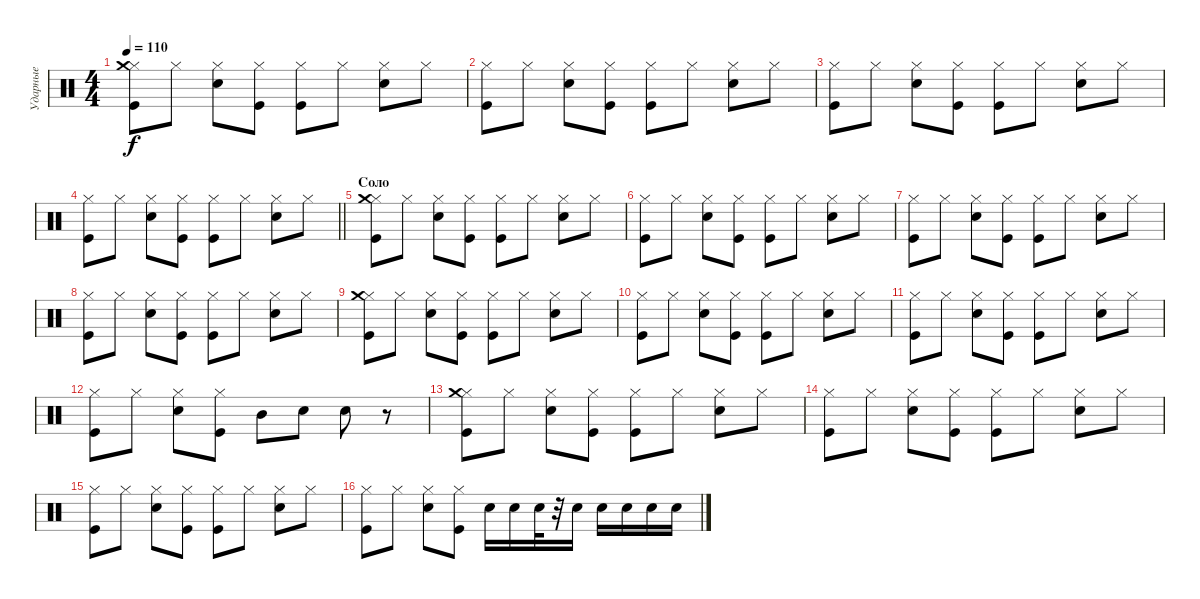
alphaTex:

\track ("Ударные" "Ударные") {instrument percussion}
\staff {score}
\articulation defaults
\ts (4 4)
\tempo 110
\clef neutral
\ks c
("Kick (hit)" "Hi-Hat (closed)" "Crash medium (hit)").8{dy f} "Hi-Hat (closed)".8 ("Snare (hit) 2" "Hi-Hat (closed)").8 ("Kick (hit)" "Hi-Hat (closed)").8 ("Hi-Hat (closed)" "Kick (hit)").8 "Hi-Hat (closed)".8 ("Snare (hit) 2" "Hi-Hat (closed)").8 "Hi-Hat (closed)".8 |
("Kick (hit)" "Hi-Hat (closed)").8 "Hi-Hat (closed)".8 ("Snare (hit) 2" "Hi-Hat (closed)").8 ("Kick (hit)" "Hi-Hat (closed)").8 ("Hi-Hat (closed)" "Kick (hit)").8 "Hi-Hat (closed)".8 ("Snare (hit) 2" "Hi-Hat (closed)").8 "Hi-Hat (closed)".8 |
("Kick (hit)" "Hi-Hat (closed)").8 "Hi-Hat (closed)".8 ("Snare (hit) 2" "Hi-Hat (closed)").8 ("Kick (hit)" "Hi-Hat (closed)").8 ("Hi-Hat (closed)" "Kick (hit)").8 "Hi-Hat (closed)".8 ("Snare (hit) 2" "Hi-Hat (closed)").8 "Hi-Hat (closed)".8 |
\barLineRight lightlight
("Kick (hit)" "Hi-Hat (closed)").8 "Hi-Hat (closed)".8 ("Snare (hit) 2" "Hi-Hat (closed)").8 ("Kick (hit)" "Hi-Hat (closed)").8 ("Hi-Hat (closed)" "Kick (hit)").8 "Hi-Hat (closed)".8 ("Snare (hit) 2" "Hi-Hat (closed)").8 "Hi-Hat (closed)".8 |
\section ("" "Соло")
("Kick (hit)" "Hi-Hat (closed)" "Crash medium (hit)").8 "Hi-Hat (closed)".8 ("Snare (hit) 2" "Hi-Hat (closed)").8 ("Kick (hit)" "Hi-Hat (closed)").8 ("Hi-Hat (closed)" "Kick (hit)").8 "Hi-Hat (closed)".8 ("Snare (hit) 2" "Hi-Hat (closed)").8 "Hi-Hat (closed)".8 |
("Kick (hit)" "Hi-Hat (closed)").8 "Hi-Hat (closed)".8 ("Snare (hit) 2" "Hi-Hat (closed)").8 ("Kick (hit)" "Hi-Hat (closed)").8 ("Hi-Hat (closed)" "Kick (hit)").8 "Hi-Hat (closed)".8 ("Snare (hit) 2" "Hi-Hat (closed)").8 "Hi-Hat (closed)".8 |
("Kick (hit)" "Hi-Hat (closed)").8 "Hi-Hat (closed)".8 ("Snare (hit) 2" "Hi-Hat (closed)").8 ("Kick (hit)" "Hi-Hat (closed)").8 ("Hi-Hat (closed)" "Kick (hit)").8 "Hi-Hat (closed)".8 ("Snare (hit) 2" "Hi-Hat (closed)").8 "Hi-Hat (closed)".8 |
("Kick (hit)" "Hi-Hat (closed)").8 "Hi-Hat (closed)".8 ("Snare (hit) 2" "Hi-Hat (closed)").8 ("Kick (hit)" "Hi-Hat (closed)").8 ("Hi-Hat (closed)" "Kick (hit)").8 "Hi-Hat (closed)".8 ("Snare (hit) 2" "Hi-Hat (closed)").8 "Hi-Hat (closed)".8 |
("Kick (hit)" "Hi-Hat (closed)" "Crash medium (hit)").8 "Hi-Hat (closed)".8 ("Snare (hit) 2" "Hi-Hat (closed)").8 ("Kick (hit)" "Hi-Hat (closed)").8 ("Hi-Hat (closed)" "Kick (hit)").8 "Hi-Hat (closed)".8 ("Snare (hit) 2" "Hi-Hat (closed)").8 "Hi-Hat (closed)".8 |
("Kick (hit)" "Hi-Hat (closed)").8 "Hi-Hat (closed)".8 ("Snare (hit) 2" "Hi-Hat (closed)").8 ("Kick (hit)" "Hi-Hat (closed)").8 ("Hi-Hat (closed)" "Kick (hit)").8 "Hi-Hat (closed)".8 ("Snare (hit) 2" "Hi-Hat (closed)").8 "Hi-Hat (closed)".8 |
("Kick (hit)" "Hi-Hat (closed)").8 "Hi-Hat (closed)".8 ("Snare (hit) 2" "Hi-Hat (closed)").8 ("Kick (hit)" "Hi-Hat (closed)").8 ("Hi-Hat (closed)" "Kick (hit)").8 "Hi-Hat (closed)".8 ("Snare (hit) 2" "Hi-Hat (closed)").8 "Hi-Hat (closed)".8 |
("Kick (hit)" "Hi-Hat (closed)").8 "Hi-Hat (closed)".8 ("Snare (hit) 2" "Hi-Hat (closed)").8 ("Kick (hit)" "Hi-Hat (closed)").8 "Mid Tom (hit)".8 "Snare (hit) 2".8 "Snare (hit) 2".8 r.8 |
("Kick (hit)" "Hi-Hat (closed)" "Crash medium (hit)").8 "Hi-Hat (closed)".8 ("Snare (hit) 2" "Hi-Hat (closed)").8 ("Kick (hit)" "Hi-Hat (closed)").8 ("Hi-Hat (closed)" "Kick (hit)").8 "Hi-Hat (closed)".8 ("Snare (hit) 2" "Hi-Hat (closed)").8 "Hi-Hat (closed)".8 |
("Kick (hit)" "Hi-Hat (closed)").8 "Hi-Hat (closed)".8 ("Snare (hit) 2" "Hi-Hat (closed)").8 ("Kick (hit)" "Hi-Hat (closed)").8 ("Hi-Hat (closed)" "Kick (hit)").8 "Hi-Hat (closed)".8 ("Snare (hit) 2" "Hi-Hat (closed)").8 "Hi-Hat (closed)".8 |
("Kick (hit)" "Hi-Hat (closed)").8 "Hi-Hat (closed)".8 ("Snare (hit) 2" "Hi-Hat (closed)").8 ("Kick (hit)" "Hi-Hat (closed)").8 ("Hi-Hat (closed)" "Kick (hit)").8 "Hi-Hat (closed)".8 ("Snare (hit) 2" "Hi-Hat (closed)").8 "Hi-Hat (closed)".8 |
("Kick (hit)" "Hi-Hat (closed)").8 "Hi-Hat (closed)".8 ("Snare (hit) 2" "Hi-Hat (closed)").8 ("Kick (hit)" "Hi-Hat (closed)").8 "Snare (hit) 2".16 "Snare (hit) 2".16 "Snare (hit) 2".32 r.32 "Snare (hit) 2".16 "Electric Snare (hit)".16 "Electric Snare (hit)".16 "Electric Snare (hit)".16 "Electric Snare (hit)".16
